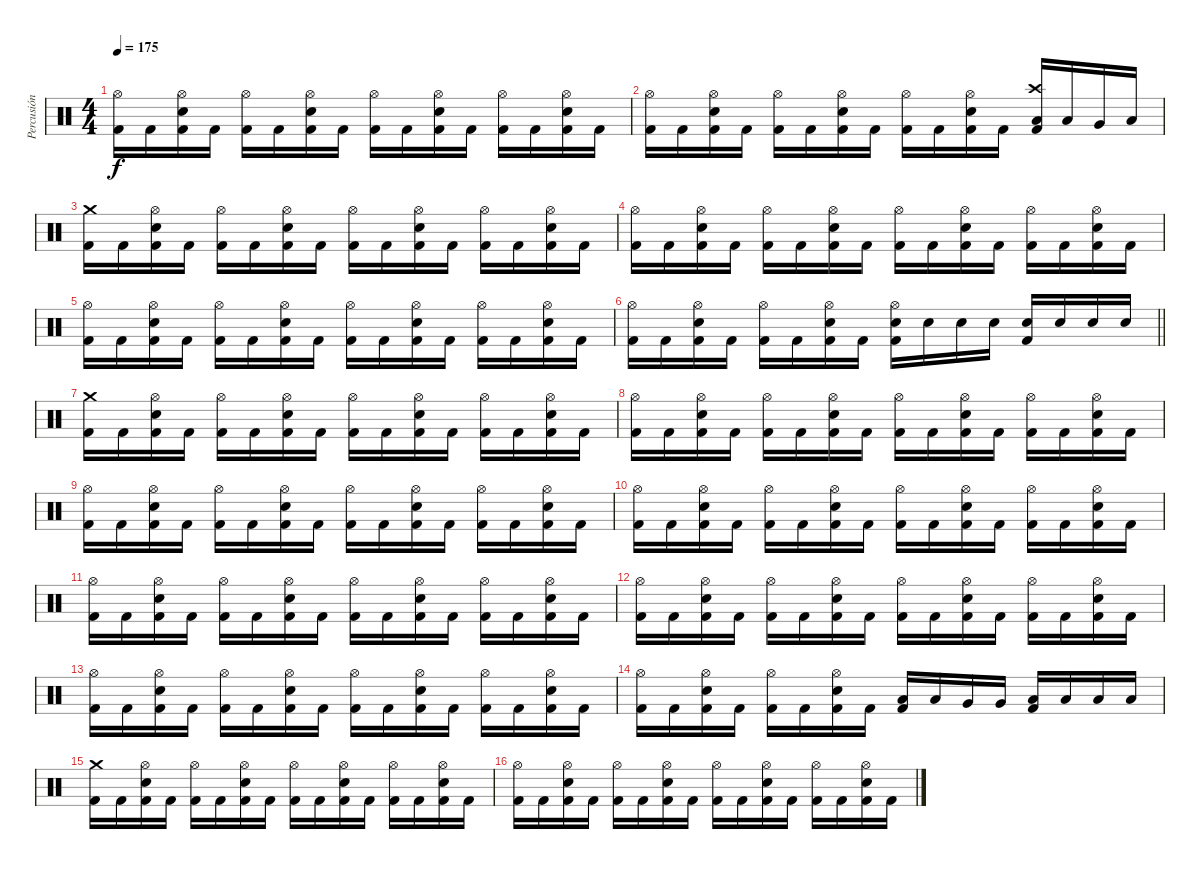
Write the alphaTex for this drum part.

\track ("Percusión" "Percusión") {instrument percussion}
\staff {score}
\articulation defaults
\ts (4 4)
\tempo 175
\clef neutral
\ks c
("Hi-Hat (open)" "Kick (hit) 2").16{dy f} "Kick (hit) 2".16 ("Hi-Hat (open)" "Electric Snare (hit)" "Kick (hit) 2").16 "Kick (hit) 2".16 ("Hi-Hat (open)" "Kick (hit) 2").16 "Kick (hit) 2".16 ("Hi-Hat (open)" "Electric Snare (hit)" "Kick (hit) 2").16 "Kick (hit) 2".16 ("Hi-Hat (open)" "Kick (hit) 2").16 "Kick (hit) 2".16 ("Hi-Hat (open)" "Electric Snare (hit)" "Kick (hit) 2").16 "Kick (hit) 2".16 ("Hi-Hat (open)" "Kick (hit) 2").16 "Kick (hit) 2".16 ("Hi-Hat (open)" "Electric Snare (hit)" "Kick (hit) 2").16 "Kick (hit) 2".16 |
("Hi-Hat (open)" "Kick (hit) 2").16 "Kick (hit) 2".16 ("Hi-Hat (open)" "Electric Snare (hit)" "Kick (hit) 2").16 "Kick (hit) 2".16 ("Hi-Hat (open)" "Kick (hit) 2").16 "Kick (hit) 2".16 ("Hi-Hat (open)" "Electric Snare (hit)" "Kick (hit) 2").16 "Kick (hit) 2".16 ("Hi-Hat (open)" "Kick (hit) 2").16 "Kick (hit) 2".16 ("Hi-Hat (open)" "Electric Snare (hit)" "Kick (hit) 2").16 "Kick (hit) 2".16 ("Crash high (hit)" "Low Tom (hit)" "Kick (hit) 2").16 "Low Tom (hit)".16 "Very Low Tom (hit)".16 "Low Floor Tom (hit)".16 |
("Crash medium (hit)" "Kick (hit) 2").16 "Kick (hit) 2".16 ("Hi-Hat (open)" "Electric Snare (hit)" "Kick (hit) 2").16 "Kick (hit) 2".16 ("Hi-Hat (open)" "Kick (hit) 2").16 "Kick (hit) 2".16 ("Hi-Hat (open)" "Electric Snare (hit)" "Kick (hit) 2").16 "Kick (hit) 2".16 ("Hi-Hat (open)" "Kick (hit) 2").16 "Kick (hit) 2".16 ("Hi-Hat (open)" "Electric Snare (hit)" "Kick (hit) 2").16 "Kick (hit) 2".16 ("Hi-Hat (open)" "Kick (hit) 2").16 "Kick (hit) 2".16 ("Hi-Hat (open)" "Electric Snare (hit)" "Kick (hit) 2").16 "Kick (hit) 2".16 |
("Hi-Hat (open)" "Kick (hit) 2").16 "Kick (hit) 2".16 ("Hi-Hat (open)" "Electric Snare (hit)" "Kick (hit) 2").16 "Kick (hit) 2".16 ("Hi-Hat (open)" "Kick (hit) 2").16 "Kick (hit) 2".16 ("Hi-Hat (open)" "Electric Snare (hit)" "Kick (hit) 2").16 "Kick (hit) 2".16 ("Hi-Hat (open)" "Kick (hit) 2").16 "Kick (hit) 2".16 ("Hi-Hat (open)" "Electric Snare (hit)" "Kick (hit) 2").16 "Kick (hit) 2".16 ("Hi-Hat (open)" "Kick (hit) 2").16 "Kick (hit) 2".16 ("Hi-Hat (open)" "Electric Snare (hit)" "Kick (hit) 2").16 "Kick (hit) 2".16 |
("Hi-Hat (open)" "Kick (hit) 2").16 "Kick (hit) 2".16 ("Hi-Hat (open)" "Electric Snare (hit)" "Kick (hit) 2").16 "Kick (hit) 2".16 ("Hi-Hat (open)" "Kick (hit) 2").16 "Kick (hit) 2".16 ("Hi-Hat (open)" "Electric Snare (hit)" "Kick (hit) 2").16 "Kick (hit) 2".16 ("Hi-Hat (open)" "Kick (hit) 2").16 "Kick (hit) 2".16 ("Hi-Hat (open)" "Electric Snare (hit)" "Kick (hit) 2").16 "Kick (hit) 2".16 ("Hi-Hat (open)" "Kick (hit) 2").16 "Kick (hit) 2".16 ("Hi-Hat (open)" "Electric Snare (hit)" "Kick (hit) 2").16 "Kick (hit) 2".16 |
\barLineRight lightlight
("Hi-Hat (open)" "Kick (hit) 2").16 "Kick (hit) 2".16 ("Hi-Hat (open)" "Electric Snare (hit)" "Kick (hit) 2").16 "Kick (hit) 2".16 ("Hi-Hat (open)" "Kick (hit) 2").16 "Kick (hit) 2".16 ("Hi-Hat (open)" "Electric Snare (hit)" "Kick (hit) 2").16 "Kick (hit) 2".16 ("Hi-Hat (open)" "Electric Snare (hit)" "Kick (hit) 2").16 "Electric Snare (hit)".16 "Electric Snare (hit)".16 "Electric Snare (hit)".16 ("Electric Snare (hit)" "Kick (hit) 2").16 "Electric Snare (hit)".16 "Electric Snare (hit)".16 "Electric Snare (hit)".16 |
("Crash medium (hit)" "Kick (hit) 2").16 "Kick (hit) 2".16 ("Hi-Hat (open)" "Electric Snare (hit)" "Kick (hit) 2").16 "Kick (hit) 2".16 ("Hi-Hat (open)" "Kick (hit) 2").16 "Kick (hit) 2".16 ("Hi-Hat (open)" "Electric Snare (hit)" "Kick (hit) 2").16 "Kick (hit) 2".16 ("Hi-Hat (open)" "Kick (hit) 2").16 "Kick (hit) 2".16 ("Hi-Hat (open)" "Electric Snare (hit)" "Kick (hit) 2").16 "Kick (hit) 2".16 ("Hi-Hat (open)" "Kick (hit) 2").16 "Kick (hit) 2".16 ("Hi-Hat (open)" "Electric Snare (hit)" "Kick (hit) 2").16 "Kick (hit) 2".16 |
("Hi-Hat (open)" "Kick (hit) 2").16 "Kick (hit) 2".16 ("Hi-Hat (open)" "Electric Snare (hit)" "Kick (hit) 2").16 "Kick (hit) 2".16 ("Hi-Hat (open)" "Kick (hit) 2").16 "Kick (hit) 2".16 ("Hi-Hat (open)" "Electric Snare (hit)" "Kick (hit) 2").16 "Kick (hit) 2".16 ("Hi-Hat (open)" "Kick (hit) 2").16 "Kick (hit) 2".16 ("Hi-Hat (open)" "Electric Snare (hit)" "Kick (hit) 2").16 "Kick (hit) 2".16 ("Hi-Hat (open)" "Kick (hit) 2").16 "Kick (hit) 2".16 ("Hi-Hat (open)" "Electric Snare (hit)" "Kick (hit) 2").16 "Kick (hit) 2".16 |
("Hi-Hat (open)" "Kick (hit) 2").16 "Kick (hit) 2".16 ("Hi-Hat (open)" "Electric Snare (hit)" "Kick (hit) 2").16 "Kick (hit) 2".16 ("Hi-Hat (open)" "Kick (hit) 2").16 "Kick (hit) 2".16 ("Hi-Hat (open)" "Electric Snare (hit)" "Kick (hit) 2").16 "Kick (hit) 2".16 ("Hi-Hat (open)" "Kick (hit) 2").16 "Kick (hit) 2".16 ("Hi-Hat (open)" "Electric Snare (hit)" "Kick (hit) 2").16 "Kick (hit) 2".16 ("Hi-Hat (open)" "Kick (hit) 2").16 "Kick (hit) 2".16 ("Hi-Hat (open)" "Electric Snare (hit)" "Kick (hit) 2").16 "Kick (hit) 2".16 |
("Hi-Hat (open)" "Kick (hit) 2").16 "Kick (hit) 2".16 ("Hi-Hat (open)" "Electric Snare (hit)" "Kick (hit) 2").16 "Kick (hit) 2".16 ("Hi-Hat (open)" "Kick (hit) 2").16 "Kick (hit) 2".16 ("Hi-Hat (open)" "Electric Snare (hit)" "Kick (hit) 2").16 "Kick (hit) 2".16 ("Hi-Hat (open)" "Kick (hit) 2").16 "Kick (hit) 2".16 ("Hi-Hat (open)" "Electric Snare (hit)" "Kick (hit) 2").16 "Kick (hit) 2".16 ("Hi-Hat (open)" "Kick (hit) 2").16 "Kick (hit) 2".16 ("Hi-Hat (open)" "Electric Snare (hit)" "Kick (hit) 2").16 "Kick (hit) 2".16 |
("Hi-Hat (open)" "Kick (hit) 2").16 "Kick (hit) 2".16 ("Hi-Hat (open)" "Electric Snare (hit)" "Kick (hit) 2").16 "Kick (hit) 2".16 ("Hi-Hat (open)" "Kick (hit) 2").16 "Kick (hit) 2".16 ("Hi-Hat (open)" "Electric Snare (hit)" "Kick (hit) 2").16 "Kick (hit) 2".16 ("Hi-Hat (open)" "Kick (hit) 2").16 "Kick (hit) 2".16 ("Hi-Hat (open)" "Electric Snare (hit)" "Kick (hit) 2").16 "Kick (hit) 2".16 ("Hi-Hat (open)" "Kick (hit) 2").16 "Kick (hit) 2".16 ("Hi-Hat (open)" "Electric Snare (hit)" "Kick (hit) 2").16 "Kick (hit) 2".16 |
("Hi-Hat (open)" "Kick (hit) 2").16 "Kick (hit) 2".16 ("Hi-Hat (open)" "Electric Snare (hit)" "Kick (hit) 2").16 "Kick (hit) 2".16 ("Hi-Hat (open)" "Kick (hit) 2").16 "Kick (hit) 2".16 ("Hi-Hat (open)" "Electric Snare (hit)" "Kick (hit) 2").16 "Kick (hit) 2".16 ("Hi-Hat (open)" "Kick (hit) 2").16 "Kick (hit) 2".16 ("Hi-Hat (open)" "Electric Snare (hit)" "Kick (hit) 2").16 "Kick (hit) 2".16 ("Hi-Hat (open)" "Kick (hit) 2").16 "Kick (hit) 2".16 ("Hi-Hat (open)" "Electric Snare (hit)" "Kick (hit) 2").16 "Kick (hit) 2".16 |
("Hi-Hat (open)" "Kick (hit) 2").16 "Kick (hit) 2".16 ("Hi-Hat (open)" "Electric Snare (hit)" "Kick (hit) 2").16 "Kick (hit) 2".16 ("Hi-Hat (open)" "Kick (hit) 2").16 "Kick (hit) 2".16 ("Hi-Hat (open)" "Electric Snare (hit)" "Kick (hit) 2").16 "Kick (hit) 2".16 ("Hi-Hat (open)" "Kick (hit) 2").16 "Kick (hit) 2".16 ("Hi-Hat (open)" "Electric Snare (hit)" "Kick (hit) 2").16 "Kick (hit) 2".16 ("Hi-Hat (open)" "Kick (hit) 2").16 "Kick (hit) 2".16 ("Hi-Hat (open)" "Electric Snare (hit)" "Kick (hit) 2").16 "Kick (hit) 2".16 |
("Hi-Hat (open)" "Kick (hit) 2").16 "Kick (hit) 2".16 ("Hi-Hat (open)" "Electric Snare (hit)" "Kick (hit) 2").16 "Kick (hit) 2".16 ("Hi-Hat (open)" "Kick (hit) 2").16 "Kick (hit) 2".16 ("Hi-Hat (open)" "Electric Snare (hit)" "Kick (hit) 2").16 "Kick (hit) 2".16 ("Low Tom (hit)" "Kick (hit) 2").16 "Low Tom (hit)".16 "Very Low Tom (hit)".16 "Very Low Tom (hit)".16 ("Low Tom (hit)" "Kick (hit) 2").16 "Low Tom (hit)".16 "Low Floor Tom (hit)".16 "Low Floor Tom (hit)".16 |
("Crash medium (hit)" "Kick (hit) 2").16 "Kick (hit) 2".16 ("Hi-Hat (open)" "Electric Snare (hit)" "Kick (hit) 2").16 "Kick (hit) 2".16 ("Hi-Hat (open)" "Kick (hit) 2").16 "Kick (hit) 2".16 ("Hi-Hat (open)" "Electric Snare (hit)" "Kick (hit) 2").16 "Kick (hit) 2".16 ("Hi-Hat (open)" "Kick (hit) 2").16 "Kick (hit) 2".16 ("Hi-Hat (open)" "Electric Snare (hit)" "Kick (hit) 2").16 "Kick (hit) 2".16 ("Hi-Hat (open)" "Kick (hit) 2").16 "Kick (hit) 2".16 ("Hi-Hat (open)" "Electric Snare (hit)" "Kick (hit) 2").16 "Kick (hit) 2".16 |
("Hi-Hat (open)" "Kick (hit) 2").16 "Kick (hit) 2".16 ("Hi-Hat (open)" "Electric Snare (hit)" "Kick (hit) 2").16 "Kick (hit) 2".16 ("Hi-Hat (open)" "Kick (hit) 2").16 "Kick (hit) 2".16 ("Hi-Hat (open)" "Electric Snare (hit)" "Kick (hit) 2").16 "Kick (hit) 2".16 ("Hi-Hat (open)" "Kick (hit) 2").16 "Kick (hit) 2".16 ("Hi-Hat (open)" "Electric Snare (hit)" "Kick (hit) 2").16 "Kick (hit) 2".16 ("Hi-Hat (open)" "Kick (hit) 2").16 "Kick (hit) 2".16 ("Hi-Hat (open)" "Electric Snare (hit)" "Kick (hit) 2").16 "Kick (hit) 2".16
